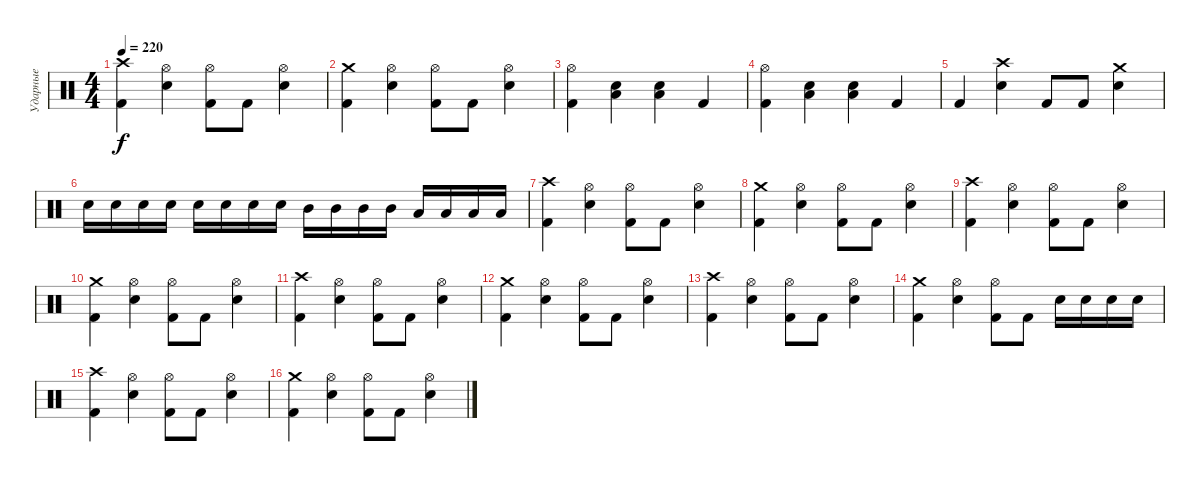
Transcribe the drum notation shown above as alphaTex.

\track ("Ударные" "Ударные") {instrument percussion}
\staff {score}
\articulation defaults
\ts (4 4)
\tempo 220
\clef neutral
\ks c
("Crash high (hit)" "Kick (hit) 2").4{dy f} ("Hi-Hat (open)" "Electric Snare (hit)").4 ("Hi-Hat (open)" "Kick (hit) 2").8 "Kick (hit) 2".8 ("Hi-Hat (open)" "Electric Snare (hit)").4 |
("Crash medium (hit)" "Kick (hit) 2").4 ("Hi-Hat (open)" "Electric Snare (hit)").4 ("Hi-Hat (open)" "Kick (hit) 2").8 "Kick (hit) 2".8 ("Hi-Hat (open)" "Electric Snare (hit)").4 |
("Hi-Hat (open)" "Kick (hit) 2").4 ("Low Tom (hit)" "Electric Snare (hit)").4 ("Low Tom (hit)" "Electric Snare (hit)").4 "Kick (hit) 2".4 |
("Hi-Hat (open)" "Kick (hit) 2").4 ("Low Tom (hit)" "Electric Snare (hit)").4 ("Low Tom (hit)" "Electric Snare (hit)").4 "Kick (hit) 2".4 |
"Kick (hit) 2".4 ("Crash high (hit)" "Electric Snare (hit)").4 "Kick (hit) 2".8 "Kick (hit) 2".8 ("Crash medium (hit)" "Electric Snare (hit)").4 |
"Electric Snare (hit)".16 "Electric Snare (hit)".16 "Electric Snare (hit)".16 "Electric Snare (hit)".16 "Electric Snare (hit)".16 "Electric Snare (hit)".16 "Electric Snare (hit)".16 "Electric Snare (hit)".16 "Mid Tom (hit)".16 "Mid Tom (hit)".16 "Mid Tom (hit)".16 "Mid Tom (hit)".16 "Low Tom (hit)".16 "Low Tom (hit)".16 "Low Tom (hit)".16 "Low Tom (hit)".16 |
("Crash high (hit)" "Kick (hit) 2").4 ("Hi-Hat (open)" "Electric Snare (hit)").4 ("Hi-Hat (open)" "Kick (hit) 2").8 "Kick (hit) 2".8 ("Hi-Hat (open)" "Electric Snare (hit)").4 |
("Crash medium (hit)" "Kick (hit) 2").4 ("Hi-Hat (open)" "Electric Snare (hit)").4 ("Hi-Hat (open)" "Kick (hit) 2").8 "Kick (hit) 2".8 ("Hi-Hat (open)" "Electric Snare (hit)").4 |
("Crash high (hit)" "Kick (hit) 2").4 ("Hi-Hat (open)" "Electric Snare (hit)").4 ("Hi-Hat (open)" "Kick (hit) 2").8 "Kick (hit) 2".8 ("Hi-Hat (open)" "Electric Snare (hit)").4 |
("Crash medium (hit)" "Kick (hit) 2").4 ("Hi-Hat (open)" "Electric Snare (hit)").4 ("Hi-Hat (open)" "Kick (hit) 2").8 "Kick (hit) 2".8 ("Hi-Hat (open)" "Electric Snare (hit)").4 |
("Crash high (hit)" "Kick (hit) 2").4 ("Hi-Hat (open)" "Electric Snare (hit)").4 ("Hi-Hat (open)" "Kick (hit) 2").8 "Kick (hit) 2".8 ("Hi-Hat (open)" "Electric Snare (hit)").4 |
("Crash medium (hit)" "Kick (hit) 2").4 ("Hi-Hat (open)" "Electric Snare (hit)").4 ("Hi-Hat (open)" "Kick (hit) 2").8 "Kick (hit) 2".8 ("Hi-Hat (open)" "Electric Snare (hit)").4 |
("Crash high (hit)" "Kick (hit) 2").4 ("Hi-Hat (open)" "Electric Snare (hit)").4 ("Hi-Hat (open)" "Kick (hit) 2").8 "Kick (hit) 2".8 ("Hi-Hat (open)" "Electric Snare (hit)").4 |
("Crash medium (hit)" "Kick (hit) 2").4 ("Hi-Hat (open)" "Electric Snare (hit)").4 ("Hi-Hat (open)" "Kick (hit) 2").8 "Kick (hit) 2".8 "Electric Snare (hit)".16 "Electric Snare (hit)".16 "Electric Snare (hit)".16 "Electric Snare (hit)".16 |
("Crash high (hit)" "Kick (hit) 2").4 ("Hi-Hat (open)" "Electric Snare (hit)").4 ("Hi-Hat (open)" "Kick (hit) 2").8 "Kick (hit) 2".8 ("Hi-Hat (open)" "Electric Snare (hit)").4 |
("Crash medium (hit)" "Kick (hit) 2").4 ("Hi-Hat (open)" "Electric Snare (hit)").4 ("Hi-Hat (open)" "Kick (hit) 2").8 "Kick (hit) 2".8 ("Hi-Hat (open)" "Electric Snare (hit)").4
